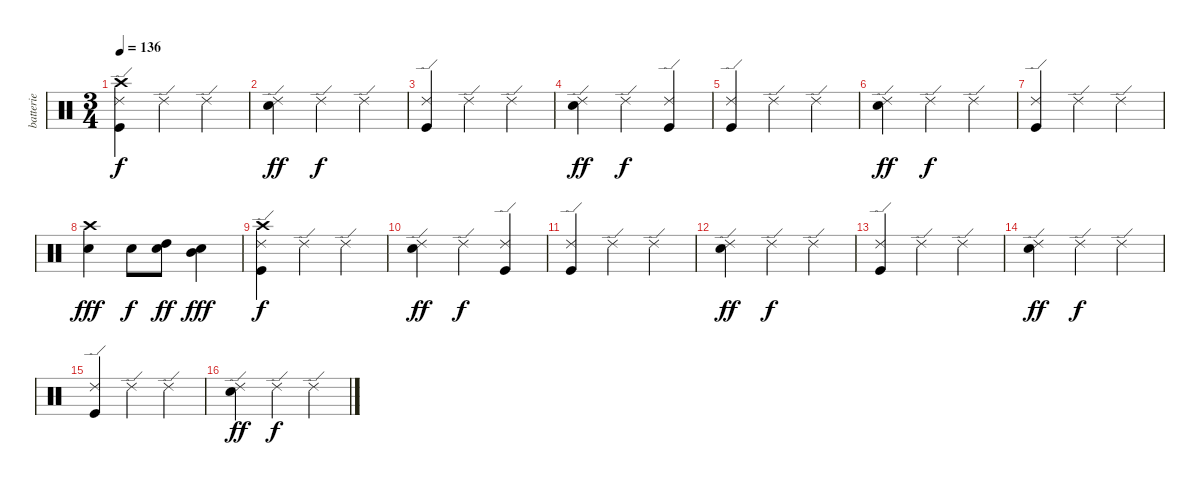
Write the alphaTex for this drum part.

\track ("batterie" "batterie") {instrument percussion}
\staff {score}
\articulation defaults
\ts (3 4)
\tempo 136
\clef neutral
\ks c
("Kick (hit)" "Ride (edge) 2" "Crash high (hit)").4{dy f} "Ride (edge) 2".4 "Ride (edge) 2".4 |
("Electric Snare (hit)" "Ride (edge) 2").4{dy ff} "Ride (edge) 2".4{dy f} "Ride (edge) 2".4 |
("Kick (hit)" "Ride (edge) 2").4 "Ride (edge) 2".4 "Ride (edge) 2".4 |
("Electric Snare (hit)" "Ride (edge) 2").4{dy ff} "Ride (edge) 2".4{dy f} ("Kick (hit)" "Ride (edge) 2").4 |
("Kick (hit)" "Ride (edge) 2").4 "Ride (edge) 2".4 "Ride (edge) 2".4 |
("Electric Snare (hit)" "Ride (edge) 2").4{dy ff} "Ride (edge) 2".4{dy f} "Ride (edge) 2".4 |
("Kick (hit)" "Ride (edge) 2").4 "Ride (edge) 2".4 "Ride (edge) 2".4 |
("Electric Snare (hit)" "Crash high (hit)").4{dy fff} "Electric Snare (hit)".8{dy f} ("Electric Snare (hit)" "High Tom (hit)").8{dy ff} ("Electric Snare (hit)" "Mid Tom (hit)").4{dy fff} |
("Kick (hit)" "Ride (edge) 2" "Crash high (hit)").4{dy f} "Ride (edge) 2".4 "Ride (edge) 2".4 |
("Electric Snare (hit)" "Ride (edge) 2").4{dy ff} "Ride (edge) 2".4{dy f} ("Kick (hit)" "Ride (edge) 2").4 |
("Kick (hit)" "Ride (edge) 2").4 "Ride (edge) 2".4 "Ride (edge) 2".4 |
("Electric Snare (hit)" "Ride (edge) 2").4{dy ff} "Ride (edge) 2".4{dy f} "Ride (edge) 2".4 |
("Kick (hit)" "Ride (edge) 2").4 "Ride (edge) 2".4 "Ride (edge) 2".4 |
("Electric Snare (hit)" "Ride (edge) 2").4{dy ff} "Ride (edge) 2".4{dy f} "Ride (edge) 2".4 |
("Kick (hit)" "Ride (edge) 2").4 "Ride (edge) 2".4 "Ride (edge) 2".4 |
("Electric Snare (hit)" "Ride (edge) 2").4{dy ff} "Ride (edge) 2".4{dy f} "Ride (edge) 2".4
